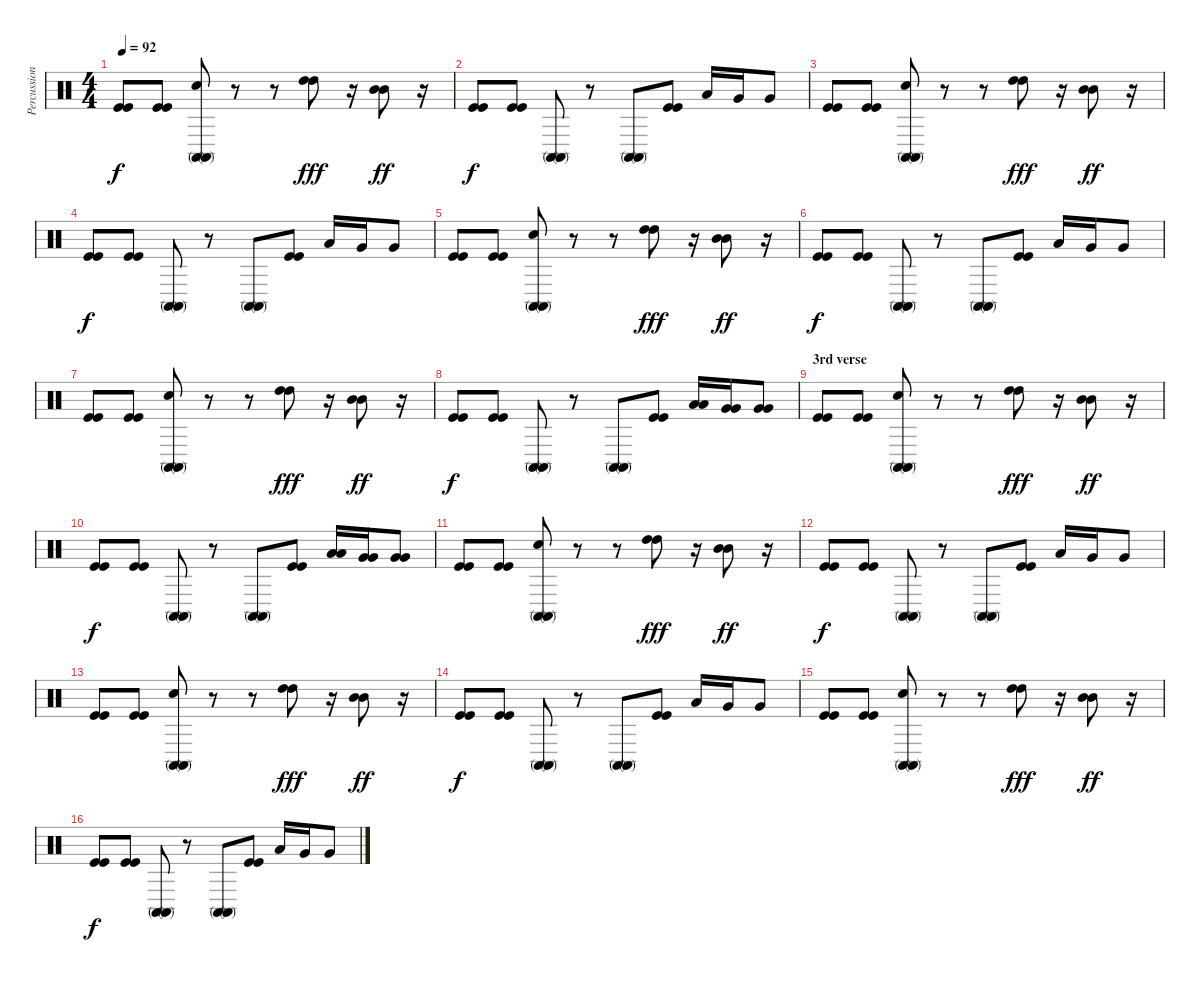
\track ("Percussion" "Percussion") {instrument percussion}
\staff {score}
\articulation defaults
\ts (4 4)
\tempo 92
\clef neutral
\ks c
("Kick (hit)" "Kick (hit)").8{dy f} ("Kick (hit)" "Kick (hit)").8 ("Conga high (mute)" "Conga high (mute)" "Electric Snare (hit)").8 r.8 r.8 ("High Tom (hit)" "High Tom (hit)").8{dy fff} r.16 ("Mid Tom (hit)" "Mid Tom (hit)").8{dy ff} r.16 |
("Kick (hit)" "Kick (hit)").8{dy f} ("Kick (hit)" "Kick (hit)").8 ("Conga high (mute)" "Conga high (mute)").8 r.8 ("Conga high (mute)" "Conga high (mute)").8 ("Kick (hit)" "Kick (hit)").8 "Low Tom (hit)".16 "Very Low Tom (hit)".16 "Very Low Tom (hit)".8 |
("Kick (hit)" "Kick (hit)").8 ("Kick (hit)" "Kick (hit)").8 ("Conga high (mute)" "Conga high (mute)" "Electric Snare (hit)").8 r.8 r.8 ("High Tom (hit)" "High Tom (hit)").8{dy fff} r.16 ("Mid Tom (hit)" "Mid Tom (hit)").8{dy ff} r.16 |
("Kick (hit)" "Kick (hit)").8{dy f} ("Kick (hit)" "Kick (hit)").8 ("Conga high (mute)" "Conga high (mute)").8 r.8 ("Conga high (mute)" "Conga high (mute)").8 ("Kick (hit)" "Kick (hit)").8 "Low Tom (hit)".16 "Very Low Tom (hit)".16 "Very Low Tom (hit)".8 |
("Kick (hit)" "Kick (hit)").8 ("Kick (hit)" "Kick (hit)").8 ("Conga high (mute)" "Conga high (mute)" "Electric Snare (hit)").8 r.8 r.8 ("High Tom (hit)" "High Tom (hit)").8{dy fff} r.16 ("Mid Tom (hit)" "Mid Tom (hit)").8{dy ff} r.16 |
("Kick (hit)" "Kick (hit)").8{dy f} ("Kick (hit)" "Kick (hit)").8 ("Conga high (mute)" "Conga high (mute)").8 r.8 ("Conga high (mute)" "Conga high (mute)").8 ("Kick (hit)" "Kick (hit)").8 "Low Tom (hit)".16 "Very Low Tom (hit)".16 "Very Low Tom (hit)".8 |
("Kick (hit)" "Kick (hit)").8 ("Kick (hit)" "Kick (hit)").8 ("Conga high (mute)" "Conga high (mute)" "Electric Snare (hit)").8 r.8 r.8 ("High Tom (hit)" "High Tom (hit)").8{dy fff} r.16 ("Mid Tom (hit)" "Mid Tom (hit)").8{dy ff} r.16 |
("Kick (hit)" "Kick (hit)").8{dy f} ("Kick (hit)" "Kick (hit)").8 ("Conga high (mute)" "Conga high (mute)").8 r.8 ("Conga high (mute)" "Conga high (mute)").8 ("Kick (hit)" "Kick (hit)").8 ("Low Tom (hit)" "Low Tom (hit)").16 ("Very Low Tom (hit)" "Very Low Tom (hit)").16 ("Very Low Tom (hit)" "Very Low Tom (hit)").8 |
\section ("" "3rd verse")
("Kick (hit)" "Kick (hit)").8 ("Kick (hit)" "Kick (hit)").8 ("Conga high (mute)" "Conga high (mute)" "Electric Snare (hit)").8 r.8 r.8 ("High Tom (hit)" "High Tom (hit)").8{dy fff} r.16 ("Mid Tom (hit)" "Mid Tom (hit)").8{dy ff} r.16 |
("Kick (hit)" "Kick (hit)").8{dy f} ("Kick (hit)" "Kick (hit)").8 ("Conga high (mute)" "Conga high (mute)").8 r.8 ("Conga high (mute)" "Conga high (mute)").8 ("Kick (hit)" "Kick (hit)").8 ("Low Tom (hit)" "Low Tom (hit)").16 ("Very Low Tom (hit)" "Very Low Tom (hit)").16 ("Very Low Tom (hit)" "Very Low Tom (hit)").8 |
("Kick (hit)" "Kick (hit)").8 ("Kick (hit)" "Kick (hit)").8 ("Conga high (mute)" "Conga high (mute)" "Electric Snare (hit)").8 r.8 r.8 ("High Tom (hit)" "High Tom (hit)").8{dy fff} r.16 ("Mid Tom (hit)" "Mid Tom (hit)").8{dy ff} r.16 |
("Kick (hit)" "Kick (hit)").8{dy f} ("Kick (hit)" "Kick (hit)").8 ("Conga high (mute)" "Conga high (mute)").8 r.8 ("Conga high (mute)" "Conga high (mute)").8 ("Kick (hit)" "Kick (hit)").8 "Low Tom (hit)".16 "Very Low Tom (hit)".16 "Very Low Tom (hit)".8 |
("Kick (hit)" "Kick (hit)").8 ("Kick (hit)" "Kick (hit)").8 ("Conga high (mute)" "Conga high (mute)" "Electric Snare (hit)").8 r.8 r.8 ("High Tom (hit)" "High Tom (hit)").8{dy fff} r.16 ("Mid Tom (hit)" "Mid Tom (hit)").8{dy ff} r.16 |
("Kick (hit)" "Kick (hit)").8{dy f} ("Kick (hit)" "Kick (hit)").8 ("Conga high (mute)" "Conga high (mute)").8 r.8 ("Conga high (mute)" "Conga high (mute)").8 ("Kick (hit)" "Kick (hit)").8 "Low Tom (hit)".16 "Very Low Tom (hit)".16 "Very Low Tom (hit)".8 |
("Kick (hit)" "Kick (hit)").8 ("Kick (hit)" "Kick (hit)").8 ("Conga high (mute)" "Conga high (mute)" "Electric Snare (hit)").8 r.8 r.8 ("High Tom (hit)" "High Tom (hit)").8{dy fff} r.16 ("Mid Tom (hit)" "Mid Tom (hit)").8{dy ff} r.16 |
("Kick (hit)" "Kick (hit)").8{dy f} ("Kick (hit)" "Kick (hit)").8 ("Conga high (mute)" "Conga high (mute)").8 r.8 ("Conga high (mute)" "Conga high (mute)").8 ("Kick (hit)" "Kick (hit)").8 "Low Tom (hit)".16 "Very Low Tom (hit)".16 "Very Low Tom (hit)".8
